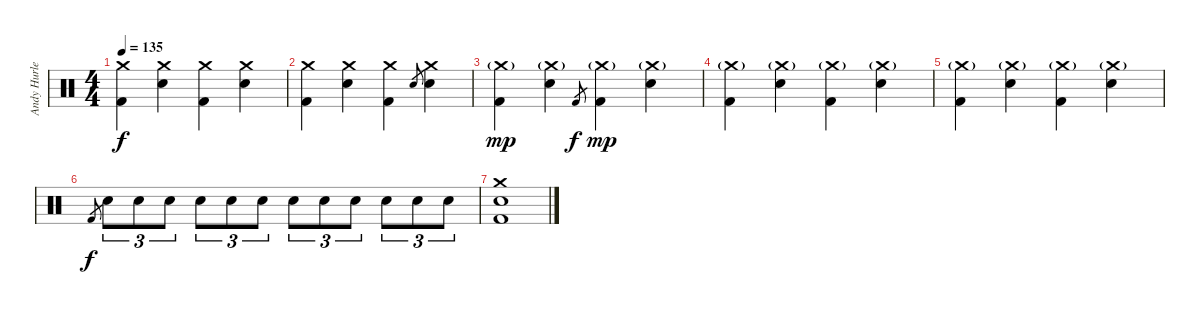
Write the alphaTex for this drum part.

\track ("Andy Hurley" "Andy Hurle") {instrument percussion}
\staff {score}
\articulation defaults
\ts (4 4)
\tempo 135
\clef neutral
\ks c
("Crash medium (hit)" "Kick (hit) 2").4{dy f} ("Crash medium (hit)" "Electric Snare (hit)").4 ("Crash medium (hit)" "Kick (hit) 2").4 ("Crash medium (hit)" "Electric Snare (hit)").4 |
("Crash medium (hit)" "Kick (hit) 2").4 ("Crash medium (hit)" "Electric Snare (hit)").4 ("Crash medium (hit)" "Kick (hit) 2").4 "Electric Snare (hit)".8{gr} ("Crash medium (hit)" "Electric Snare (hit)").4 |
("Crash medium (hit)"{g} "Kick (hit) 2").4{dy mp} ("Crash medium (hit)"{g} "Electric Snare (hit)").4 "Kick (hit) 2".8{gr dy f} ("Crash medium (hit)"{g} "Kick (hit) 2").4{dy mp} ("Crash medium (hit)"{g} "Electric Snare (hit)").4 |
("Crash medium (hit)"{g} "Kick (hit) 2").4 ("Crash medium (hit)"{g} "Electric Snare (hit)").4 ("Crash medium (hit)"{g} "Kick (hit) 2").4 ("Crash medium (hit)"{g} "Electric Snare (hit)").4 |
("Crash medium (hit)"{g} "Kick (hit) 2").4 ("Crash medium (hit)"{g} "Electric Snare (hit)").4 ("Crash medium (hit)"{g} "Kick (hit) 2").4 ("Crash medium (hit)"{g} "Electric Snare (hit)").4 |
"Kick (hit) 2".8{gr dy f} "Electric Snare (hit)".8{tu (3 2)} "Electric Snare (hit)".8{tu (3 2)} "Electric Snare (hit)".8{tu (3 2)} "Electric Snare (hit)".8{tu (3 2)} "Electric Snare (hit)".8{tu (3 2)} "Electric Snare (hit)".8{tu (3 2)} "Electric Snare (hit)".8{tu (3 2)} "Electric Snare (hit)".8{tu (3 2)} "Electric Snare (hit)".8{tu (3 2)} "Electric Snare (hit)".8{tu (3 2)} "Electric Snare (hit)".8{tu (3 2)} "Electric Snare (hit)".8{tu (3 2)} |
("Crash medium (hit)" "Electric Snare (hit)" "Kick (hit) 2").1
